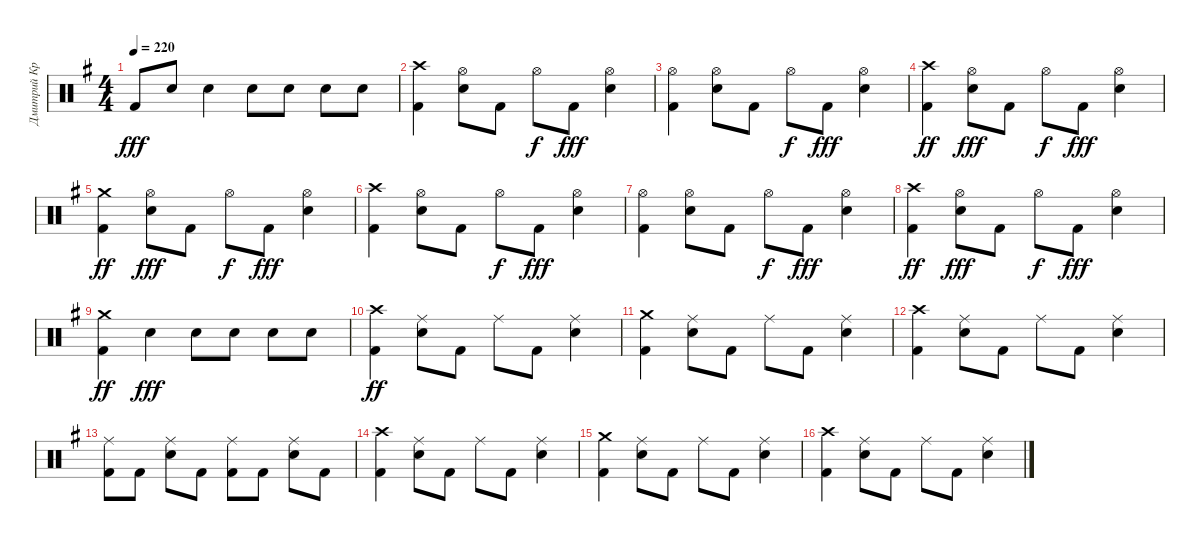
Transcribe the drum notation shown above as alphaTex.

\track ("Дмитрий Кривенков" "Дмитрий Кр") {instrument percussion}
\staff {score}
\articulation defaults
\ts (4 4)
\tempo 220
\clef neutral
\ks g "Kick (hit) 2".8{dy fff} "Snare (hit) 2".8 "Snare (hit) 2".4 "Snare (hit) 2".8 "Snare (hit) 2".8 "Snare (hit) 2".8 "Snare (hit) 2".8
|
("Crash high (hit)" "Kick (hit) 2").4 ("Hi-Hat (open)" "Snare (hit) 2").8 "Kick (hit) 2".8 "Hi-Hat (open)".8{dy f} "Kick (hit) 2".8{dy fff} ("Hi-Hat (open)" "Snare (hit) 2").4 |
("Hi-Hat (open)" "Kick (hit) 2").4 ("Hi-Hat (open)" "Snare (hit) 2").8 "Kick (hit) 2".8 "Hi-Hat (open)".8{dy f} "Kick (hit) 2".8{dy fff} ("Hi-Hat (open)" "Snare (hit) 2").4 |
("Kick (hit) 2" "Crash high (hit)").4{dy ff} ("Snare (hit) 2" "Hi-Hat (open)").8{dy fff} "Kick (hit) 2".8 "Hi-Hat (open)".8{dy f} "Kick (hit) 2".8{dy fff} ("Snare (hit) 2" "Hi-Hat (open)").4 |
("Kick (hit) 2" "Crash medium (hit)").4{dy ff} ("Snare (hit) 2" "Hi-Hat (open)").8{dy fff} "Kick (hit) 2".8 "Hi-Hat (open)".8{dy f} "Kick (hit) 2".8{dy fff} ("Snare (hit) 2" "Hi-Hat (open)").4 |
("Crash high (hit)" "Kick (hit) 2").4 ("Hi-Hat (open)" "Snare (hit) 2").8 "Kick (hit) 2".8 "Hi-Hat (open)".8{dy f} "Kick (hit) 2".8{dy fff} ("Hi-Hat (open)" "Snare (hit) 2").4 |
("Hi-Hat (open)" "Kick (hit) 2").4 ("Hi-Hat (open)" "Snare (hit) 2").8 "Kick (hit) 2".8 "Hi-Hat (open)".8{dy f} "Kick (hit) 2".8{dy fff} ("Hi-Hat (open)" "Snare (hit) 2").4 |
("Kick (hit) 2" "Crash high (hit)").4{dy ff} ("Snare (hit) 2" "Hi-Hat (open)").8{dy fff} "Kick (hit) 2".8 "Hi-Hat (open)".8{dy f} "Kick (hit) 2".8{dy fff} ("Snare (hit) 2" "Hi-Hat (open)").4 |
("Kick (hit) 2" "Crash medium (hit)").4{dy ff} "Snare (hit) 2".4{dy fff} "Snare (hit) 2".8 "Snare (hit) 2".8 "Snare (hit) 2".8 "Snare (hit) 2".8 |
("Kick (hit) 2" "Crash high (hit)").4{dy ff} ("Ride (middle)" "Snare (hit) 2").8 "Kick (hit) 2".8 "Ride (middle)".8 "Kick (hit) 2".8 ("Ride (middle)" "Snare (hit) 2").4 |
("Crash medium (hit)" "Kick (hit) 2").4 ("Snare (hit) 2" "Ride (middle)").8 "Kick (hit) 2".8 "Ride (middle)".8 "Kick (hit) 2".8 ("Snare (hit) 2" "Ride (middle)").4 |
("Kick (hit) 2" "Crash high (hit)").4 ("Ride (middle)" "Snare (hit) 2").8 "Kick (hit) 2".8 "Ride (middle)".8 "Kick (hit) 2".8 ("Ride (middle)" "Snare (hit) 2").4 |
("Ride (middle)" "Kick (hit) 2").8 "Kick (hit) 2".8 ("Ride (middle)" "Snare (hit) 2").8 "Kick (hit) 2".8 ("Ride (middle)" "Kick (hit) 2").8 "Kick (hit) 2".8 ("Ride (middle)" "Snare (hit) 2").8 "Kick (hit) 2".8 |
("Kick (hit) 2" "Crash high (hit)").4 ("Ride (middle)" "Snare (hit) 2").8 "Kick (hit) 2".8 "Ride (middle)".8 "Kick (hit) 2".8 ("Ride (middle)" "Snare (hit) 2").4 |
("Crash medium (hit)" "Kick (hit) 2").4 ("Snare (hit) 2" "Ride (middle)").8 "Kick (hit) 2".8 "Ride (middle)".8 "Kick (hit) 2".8 ("Snare (hit) 2" "Ride (middle)").4 |
("Kick (hit) 2" "Crash high (hit)").4 ("Ride (middle)" "Snare (hit) 2").8 "Kick (hit) 2".8 "Ride (middle)".8 "Kick (hit) 2".8 ("Ride (middle)" "Snare (hit) 2").4
